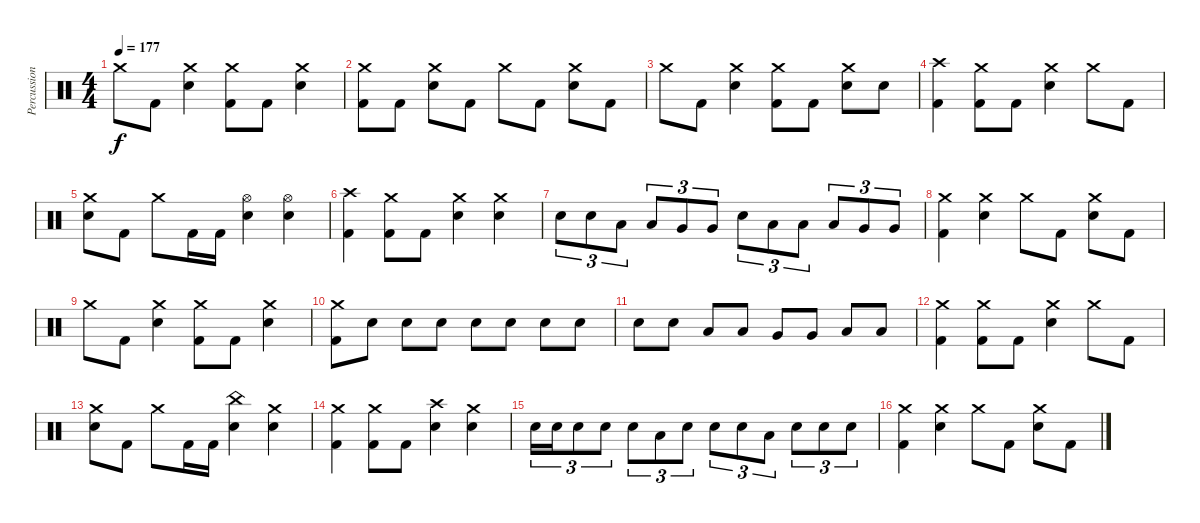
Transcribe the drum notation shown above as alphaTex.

\track ("Percussion" "Percussion") {instrument percussion}
\staff {score}
\articulation defaults
\ts (4 4)
\tempo 177
\clef neutral
\ks c "Crash medium (hit)".8{dy f} "Kick (hit) 2".8
("Crash medium (hit)" "Snare (hit) 2").4 ("Crash medium (hit)" "Kick (hit) 2").8 "Kick (hit) 2".8 ("Crash medium (hit)" "Snare (hit) 2").4 |
("Crash medium (hit)" "Kick (hit) 2").8 "Kick (hit) 2".8 ("Crash medium (hit)" "Snare (hit) 2").8 "Kick (hit) 2".8 "Crash medium (hit)".8 "Kick (hit) 2".8 ("Crash medium (hit)" "Snare (hit) 2").8 "Kick (hit) 2".8 |
"Crash medium (hit)".8 "Kick (hit) 2".8 ("Crash medium (hit)" "Snare (hit) 2").4 ("Crash medium (hit)" "Kick (hit) 2").8 "Kick (hit) 2".8 ("Crash medium (hit)" "Snare (hit) 2").8 "Snare (hit) 2".8 |
("Crash high (hit)" "Kick (hit) 2").4 ("Crash medium (hit)" "Kick (hit) 2").8 "Kick (hit) 2".8 ("Crash medium (hit)" "Snare (hit) 2").4 "Crash medium (hit)".8 "Kick (hit) 2".8 |
("Crash medium (hit)" "Snare (hit) 2").8 "Kick (hit) 2".8 "Crash medium (hit)".8 "Kick (hit) 2".16 "Kick (hit) 2".16 ("Hi-Hat (open)" "Snare (hit) 2").4 ("Hi-Hat (open)" "Snare (hit) 2").4 |
("Crash high (hit)" "Kick (hit) 2").4 ("Crash medium (hit)" "Kick (hit) 2").8 "Kick (hit) 2".8 ("Crash medium (hit)" "Snare (hit) 2").4 ("Crash medium (hit)" "Snare (hit) 2").4 |
"Snare (hit) 2".8{tu (3 2)} "Snare (hit) 2".8{tu (3 2)} "Low Tom (hit)".8{tu (3 2)} "Low Tom (hit)".8{tu (3 2)} "Very Low Tom (hit)".8{tu (3 2)} "Very Low Tom (hit)".8{tu (3 2)} "Snare (hit) 2".8{tu (3 2)} "Low Tom (hit)".8{tu (3 2)} "Low Tom (hit)".8{tu (3 2)} "Low Tom (hit)".8{tu (3 2)} "Very Low Tom (hit)".8{tu (3 2)} "Very Low Tom (hit)".8{tu (3 2)} |
("Crash medium (hit)" "Kick (hit) 2").4 ("Crash medium (hit)" "Snare (hit) 2").4 "Crash medium (hit)".8 "Kick (hit) 2".8 ("Crash medium (hit)" "Snare (hit) 2").8 "Kick (hit) 2".8 |
"Crash medium (hit)".8 "Kick (hit) 2".8 ("Crash medium (hit)" "Snare (hit) 2").4 ("Crash medium (hit)" "Kick (hit) 2").8 "Kick (hit) 2".8 ("Crash medium (hit)" "Snare (hit) 2").4 |
("Crash medium (hit)" "Kick (hit) 2").8 "Snare (hit) 2".8 "Snare (hit) 2".8 "Snare (hit) 2".8 "Snare (hit) 2".8 "Snare (hit) 2".8 "Snare (hit) 2".8 "Snare (hit) 2".8 |
"Snare (hit) 2".8 "Snare (hit) 2".8 "Low Tom (hit)".8 "Low Tom (hit)".8 "Very Low Tom (hit)".8 "Very Low Tom (hit)".8 "Low Floor Tom (hit)".8 "Low Floor Tom (hit)".8 |
("Crash medium (hit)" "Kick (hit) 2").4 ("Crash medium (hit)" "Kick (hit) 2").8 "Kick (hit) 2".8 ("Crash medium (hit)" "Snare (hit) 2").4 "Crash medium (hit)".8 "Kick (hit) 2".8 |
("Crash medium (hit)" "Snare (hit) 2").8 "Kick (hit) 2".8 "Crash medium (hit)".8 "Kick (hit) 2".16 "Kick (hit) 2".16 ("China (hit)" "Snare (hit) 2").4 ("Crash medium (hit)" "Snare (hit) 2").4 |
("Crash medium (hit)" "Kick (hit) 2").4 ("Crash medium (hit)" "Kick (hit) 2").8 "Kick (hit) 2".8 ("Crash high (hit)" "Snare (hit) 2").4 ("Crash medium (hit)" "Snare (hit) 2").4 |
"Snare (hit) 2".16{tu (3 2)} "Snare (hit) 2".16{tu (3 2)} "Snare (hit) 2".8{tu (3 2)} "Snare (hit) 2".8{tu (3 2)} "Snare (hit) 2".8{tu (3 2)} "Low Tom (hit)".8{tu (3 2)} "Snare (hit) 2".8{tu (3 2)} "Snare (hit) 2".8{tu (3 2)} "Snare (hit) 2".8{tu (3 2)} "Low Tom (hit)".8{tu (3 2)} "Snare (hit) 2".8{tu (3 2)} "Snare (hit) 2".8{tu (3 2)} "Snare (hit) 2".8{tu (3 2)} |
("Crash medium (hit)" "Kick (hit) 2").4 ("Crash medium (hit)" "Snare (hit) 2").4 "Crash medium (hit)".8 "Kick (hit) 2".8 ("Crash medium (hit)" "Snare (hit) 2").8 "Kick (hit) 2".8
